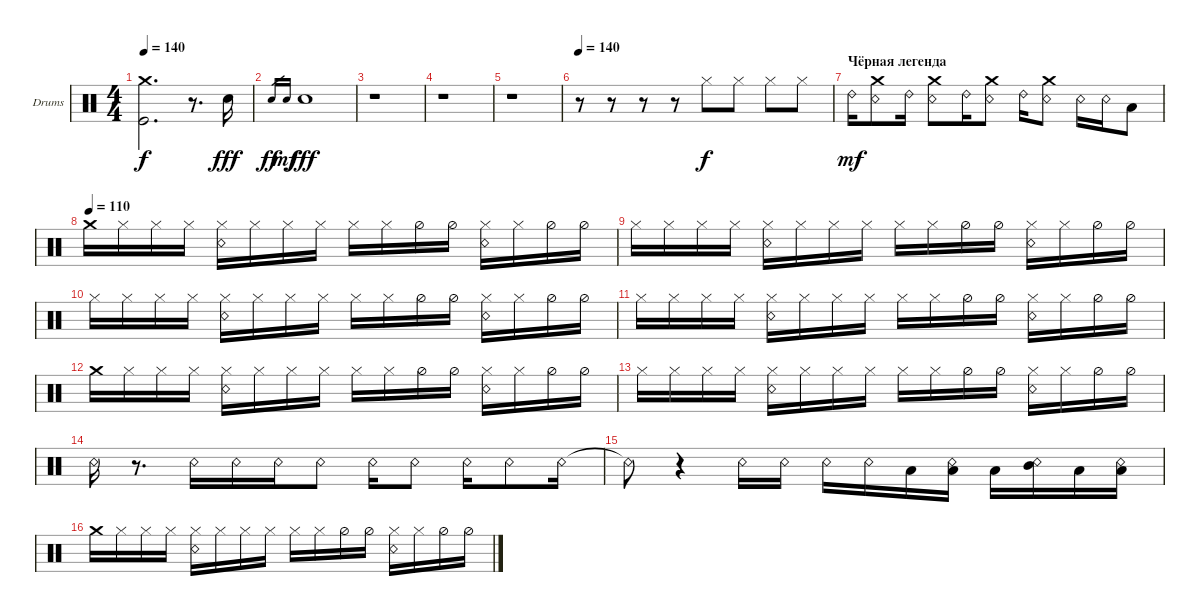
\defaultSystemsLayout 4
\bracketExtendMode nobrackets
\firstSystemTrackNameOrientation horizontal
\otherSystemsTrackNameOrientation horizontal
\track ("Ударные" "Drums") {instrument percussion}
\staff {score}
\articulation defaults
\ts (4 4)
\tempo 140
\clef neutral
\ks c
("Crash medium (hit)" "Kick (hit)").2{d dy f} r.8{d} "Snare (hit) 2".16{dy fff} |
"Snare (hit) 2".16{gr dy ff} "Snare (hit) 2".16{gr dy mf} "Snare (hit) 2".1{dy fff} |
r.1 |
r.1 |
r.1 |
\tempo 140
r.8 r.8 r.8 r.8 "Hi-Hat (closed)".8{dy f} "Hi-Hat (closed)".8 "Hi-Hat (closed)".8 "Hi-Hat (closed)".8 |
\section ("" "Чёрная легенда")
"Ride (bell) 2".16{dy mf} ("Crash medium (hit)" "Snare (rim shot)").8 "Ride (bell) 2".16 ("Crash medium (hit)" "Snare (rim shot)").8 "Ride (bell) 2".16 ("Crash medium (hit)" "Snare (rim shot)").8 "Ride (bell) 2".16 ("Crash medium (hit)" "Snare (rim shot)").8 "Snare (rim shot)".16 "Snare (rim shot)".16 "Low Tom (hit)".8 |
\tempo (110)
"Crash medium (hit)".16 "Hi-Hat (closed)".16 "Hi-Hat (closed)".16 "Hi-Hat (closed)".16 ("Hi-Hat (closed)" "Snare (rim shot)").16 "Hi-Hat (closed)".16 "Hi-Hat (closed)".16 "Hi-Hat (closed)".16 "Hi-Hat (closed)".16 "Hi-Hat (closed)".16 "Hi-Hat (half)".16 "Hi-Hat (half)".16 ("Hi-Hat (closed)" "Snare (rim shot)").16 "Hi-Hat (closed)".16 "Hi-Hat (half)".16 "Hi-Hat (half)".16 |
"Hi-Hat (closed)".16 "Hi-Hat (closed)".16 "Hi-Hat (closed)".16 "Hi-Hat (closed)".16 ("Hi-Hat (closed)" "Snare (rim shot)").16 "Hi-Hat (closed)".16 "Hi-Hat (closed)".16 "Hi-Hat (closed)".16 "Hi-Hat (closed)".16 "Hi-Hat (closed)".16 "Hi-Hat (half)".16 "Hi-Hat (half)".16 ("Hi-Hat (closed)" "Snare (rim shot)").16 "Hi-Hat (closed)".16 "Hi-Hat (half)".16 "Hi-Hat (half)".16 |
"Hi-Hat (closed)".16 "Hi-Hat (closed)".16 "Hi-Hat (closed)".16 "Hi-Hat (closed)".16 ("Hi-Hat (closed)" "Snare (rim shot)").16 "Hi-Hat (closed)".16 "Hi-Hat (closed)".16 "Hi-Hat (closed)".16 "Hi-Hat (closed)".16 "Hi-Hat (closed)".16 "Hi-Hat (half)".16 "Hi-Hat (half)".16 ("Hi-Hat (closed)" "Snare (rim shot)").16 "Hi-Hat (closed)".16 "Hi-Hat (half)".16 "Hi-Hat (half)".16 |
"Hi-Hat (closed)".16 "Hi-Hat (closed)".16 "Hi-Hat (closed)".16 "Hi-Hat (closed)".16 ("Hi-Hat (closed)" "Snare (rim shot)").16 "Hi-Hat (closed)".16 "Hi-Hat (closed)".16 "Hi-Hat (closed)".16 "Hi-Hat (closed)".16 "Hi-Hat (closed)".16 "Hi-Hat (half)".16 "Hi-Hat (half)".16 ("Hi-Hat (closed)" "Snare (rim shot)").16 "Hi-Hat (closed)".16 "Hi-Hat (half)".16 "Hi-Hat (half)".16 |
"Crash medium (hit)".16 "Hi-Hat (closed)".16 "Hi-Hat (closed)".16 "Hi-Hat (closed)".16 ("Hi-Hat (closed)" "Snare (rim shot)").16 "Hi-Hat (closed)".16 "Hi-Hat (closed)".16 "Hi-Hat (closed)".16 "Hi-Hat (closed)".16 "Hi-Hat (closed)".16 "Hi-Hat (half)".16 "Hi-Hat (half)".16 ("Hi-Hat (closed)" "Snare (rim shot)").16 "Hi-Hat (closed)".16 "Hi-Hat (half)".16 "Hi-Hat (half)".16 |
"Hi-Hat (closed)".16 "Hi-Hat (closed)".16 "Hi-Hat (closed)".16 "Hi-Hat (closed)".16 ("Hi-Hat (closed)" "Snare (rim shot)").16 "Hi-Hat (closed)".16 "Hi-Hat (closed)".16 "Hi-Hat (closed)".16 "Hi-Hat (closed)".16 "Hi-Hat (closed)".16 "Hi-Hat (half)".16 "Hi-Hat (half)".16 ("Hi-Hat (closed)" "Snare (rim shot)").16 "Hi-Hat (closed)".16 "Hi-Hat (half)".16 "Hi-Hat (half)".16 |
"Snare (rim shot)".16 r.8{d} "Snare (rim shot)".16 "Snare (rim shot)".16 "Snare (rim shot)".16 "Snare (rim shot)".8 "Snare (rim shot)".16 "Snare (rim shot)".8 "Snare (rim shot)".16 "Snare (rim shot)".8 "Snare (rim shot)".16 |
"Snare (rim shot)"{t}.8 r.4 "Snare (rim shot)".16 "Snare (rim shot)".16 "Snare (rim shot)".16 "Snare (rim shot)".16 "Low Tom (hit)".16 ("Low Tom (hit)" "Snare (rim shot)").16 "Low Tom (hit)".16 ("Mid Tom (hit)" "Snare (rim shot)").16 "Low Tom (hit)".16 ("Low Tom (hit)" "Snare (rim shot)").16 |
"Crash medium (hit)".16 "Hi-Hat (closed)".16 "Hi-Hat (closed)".16 "Hi-Hat (closed)".16 ("Hi-Hat (closed)" "Snare (rim shot)").16 "Hi-Hat (closed)".16 "Hi-Hat (closed)".16 "Hi-Hat (closed)".16 "Hi-Hat (closed)".16 "Hi-Hat (closed)".16 "Hi-Hat (half)".16 "Hi-Hat (half)".16 ("Hi-Hat (closed)" "Snare (rim shot)").16 "Hi-Hat (closed)".16 "Hi-Hat (half)".16 "Hi-Hat (half)".16
